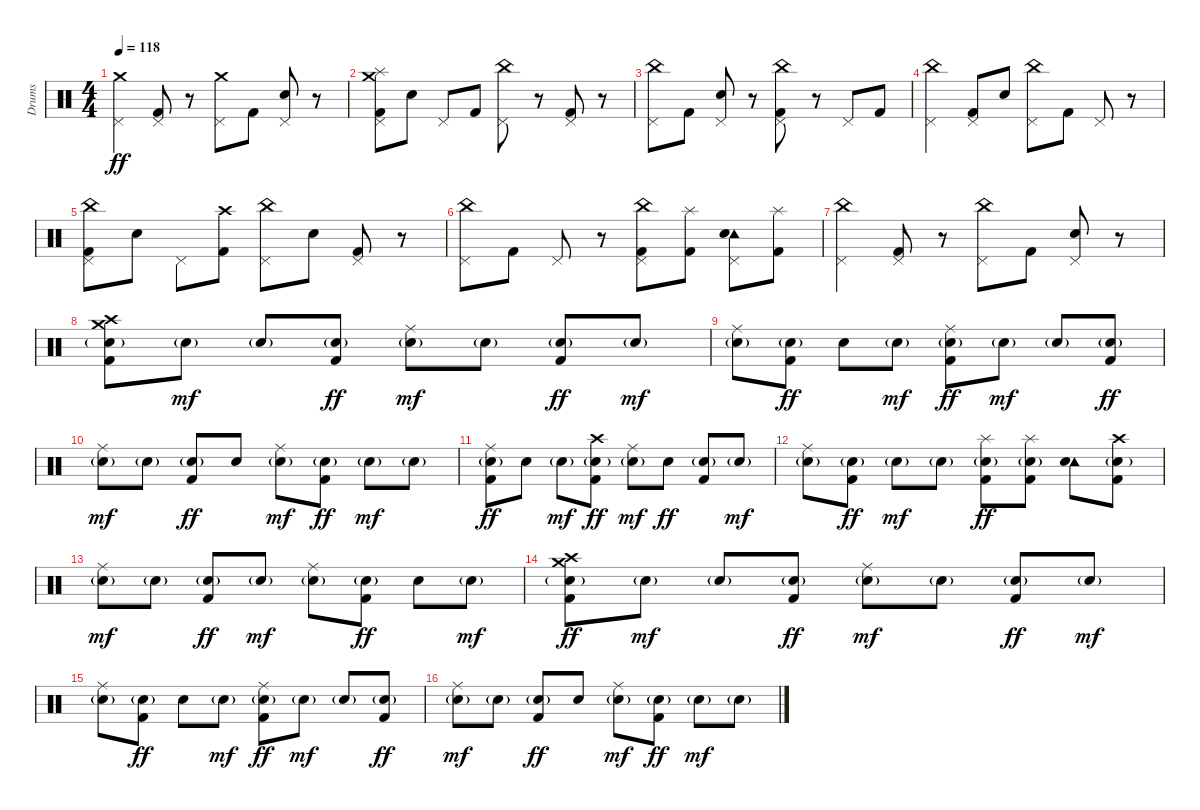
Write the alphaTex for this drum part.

\track ("Drums" "Drums") {instrument percussion}
\staff {score}
\articulation defaults
\ts (4 4)
\tempo 118
\clef neutral
\ks c
("Crash medium (hit)" "Pedal Hi-Hat (hit)").4{dy ff} ("Pedal Hi-Hat (hit)" "Kick (hit) 2").8 r.8 ("Crash medium (hit)" "Pedal Hi-Hat (hit)").8 "Kick (hit) 2".8 ("Pedal Hi-Hat (hit)" "Electric Snare (hit)").8 r.8 |
("Crash medium (hit)" "Splash (hit)" "Pedal Hi-Hat (hit)" "Kick (hit) 2").8 "Electric Snare (hit)".8 "Pedal Hi-Hat (hit)".8 "Kick (hit) 2".8 ("China (hit)" "Pedal Hi-Hat (hit)").8 r.8 ("Pedal Hi-Hat (hit)" "Kick (hit) 2").8 r.8 |
("China (hit)" "Pedal Hi-Hat (hit)").8 "Kick (hit) 2".8 ("Pedal Hi-Hat (hit)" "Electric Snare (hit)").8 r.8 ("China (hit)" "Pedal Hi-Hat (hit)" "Kick (hit) 2").8 r.8 "Pedal Hi-Hat (hit)".8 "Kick (hit) 2".8 |
("China (hit)" "Pedal Hi-Hat (hit)").4 ("Pedal Hi-Hat (hit)" "Kick (hit) 2").8 "Electric Snare (hit)".8 ("China (hit)" "Pedal Hi-Hat (hit)").8 "Kick (hit) 2".8 "Pedal Hi-Hat (hit)".8 r.8 |
("China (hit)" "Pedal Hi-Hat (hit)" "Kick (hit) 2").8 "Electric Snare (hit)".8 "Pedal Hi-Hat (hit)".8 ("Crash high (hit)" "Kick (hit) 2").8 ("China (hit)" "Pedal Hi-Hat (hit)").8 "Electric Snare (hit)".8 ("Pedal Hi-Hat (hit)" "Kick (hit) 2").8 r.8 |
("China (hit)" "Pedal Hi-Hat (hit)").8 "Kick (hit) 2".8 "Pedal Hi-Hat (hit)".8 r.8 ("China (hit)" "Pedal Hi-Hat (hit)" "Kick (hit) 2").8 ("Splash (hit)" "Kick (hit) 2").8 ("Tambourine (hit)" "Pedal Hi-Hat (hit)" "Electric Snare (hit)").8 ("Splash (hit)" "Kick (hit) 2").8 |
("China (hit)" "Pedal Hi-Hat (hit)").4 ("Pedal Hi-Hat (hit)" "Kick (hit) 2").8 r.8 ("China (hit)" "Pedal Hi-Hat (hit)").8 "Kick (hit) 2".8 ("Pedal Hi-Hat (hit)" "Electric Snare (hit)").8 r.8 |
\section ("" "")
("Crash medium (hit)" "Crash high (hit)" "Electric Snare (hit)"{g} "Kick (hit) 2").8 "Electric Snare (hit)"{g}.8{dy mf} "Electric Snare (hit)"{g}.8 ("Electric Snare (hit)"{g} "Kick (hit) 2").8{dy ff} ("Ride (middle)" "Electric Snare (hit)"{g}).8{dy mf} "Electric Snare (hit)"{g}.8 ("Electric Snare (hit)"{g} "Kick (hit) 2").8{dy ff} "Electric Snare (hit)"{g}.8{dy mf} |
("Ride (middle)" "Electric Snare (hit)"{g}).8 ("Electric Snare (hit)"{g} "Kick (hit) 2").8{dy ff} "Electric Snare (hit)".8 "Electric Snare (hit)"{g}.8{dy mf} ("Ride (middle)" "Electric Snare (hit)"{g} "Kick (hit) 2").8{dy ff} "Electric Snare (hit)"{g}.8{dy mf} "Electric Snare (hit)"{g}.8 ("Electric Snare (hit)"{g} "Kick (hit) 2").8{dy ff} |
("Ride (middle)" "Electric Snare (hit)"{g}).8{dy mf} "Electric Snare (hit)"{g}.8 ("Electric Snare (hit)"{g} "Kick (hit) 2").8{dy ff} "Electric Snare (hit)".8 ("Ride (middle)" "Electric Snare (hit)"{g}).8{dy mf} ("Electric Snare (hit)"{g} "Kick (hit) 2").8{dy ff} "Electric Snare (hit)"{g}.8{dy mf} "Electric Snare (hit)"{g}.8 |
("Ride (middle)" "Electric Snare (hit)"{g} "Kick (hit) 2").8{dy ff} "Electric Snare (hit)".8 "Electric Snare (hit)"{g}.8{dy mf} ("Crash high (hit)" "Electric Snare (hit)"{g} "Kick (hit) 2").8{dy ff} ("Ride (middle)" "Electric Snare (hit)"{g}).8{dy mf} "Electric Snare (hit)".8{dy ff} ("Electric Snare (hit)"{g} "Kick (hit) 2").8 "Electric Snare (hit)"{g}.8{dy mf} |
("Ride (middle)" "Electric Snare (hit)"{g}).8 ("Electric Snare (hit)"{g} "Kick (hit) 2").8{dy ff} "Electric Snare (hit)"{g}.8{dy mf} "Electric Snare (hit)"{g}.8 ("Splash (hit)" "Electric Snare (hit)"{g} "Kick (hit) 2").8{dy ff} ("Splash (hit)" "Electric Snare (hit)"{g} "Kick (hit) 2").8 ("Tambourine (hit)" "Electric Snare (hit)").8 ("Crash high (hit)" "Electric Snare (hit)"{g} "Kick (hit) 2").8 |
("Ride (middle)" "Electric Snare (hit)"{g}).8{dy mf} "Electric Snare (hit)"{g}.8 ("Electric Snare (hit)"{g} "Kick (hit) 2").8{dy ff} "Electric Snare (hit)"{g}.8{dy mf} ("Ride (middle)" "Electric Snare (hit)"{g}).8 ("Electric Snare (hit)"{g} "Kick (hit) 2").8{dy ff} "Electric Snare (hit)".8 "Electric Snare (hit)"{g}.8{dy mf} |
("Crash medium (hit)" "Crash high (hit)" "Electric Snare (hit)"{g} "Kick (hit) 2").8{dy ff} "Electric Snare (hit)"{g}.8{dy mf} "Electric Snare (hit)"{g}.8 ("Electric Snare (hit)"{g} "Kick (hit) 2").8{dy ff} ("Ride (middle)" "Electric Snare (hit)"{g}).8{dy mf} "Electric Snare (hit)"{g}.8 ("Electric Snare (hit)"{g} "Kick (hit) 2").8{dy ff} "Electric Snare (hit)"{g}.8{dy mf} |
("Ride (middle)" "Electric Snare (hit)"{g}).8 ("Electric Snare (hit)"{g} "Kick (hit) 2").8{dy ff} "Electric Snare (hit)".8 "Electric Snare (hit)"{g}.8{dy mf} ("Ride (middle)" "Electric Snare (hit)"{g} "Kick (hit) 2").8{dy ff} "Electric Snare (hit)"{g}.8{dy mf} "Electric Snare (hit)"{g}.8 ("Electric Snare (hit)"{g} "Kick (hit) 2").8{dy ff} |
("Ride (middle)" "Electric Snare (hit)"{g}).8{dy mf} "Electric Snare (hit)"{g}.8 ("Electric Snare (hit)"{g} "Kick (hit) 2").8{dy ff} "Electric Snare (hit)".8 ("Ride (middle)" "Electric Snare (hit)"{g}).8{dy mf} ("Electric Snare (hit)"{g} "Kick (hit) 2").8{dy ff} "Electric Snare (hit)"{g}.8{dy mf} "Electric Snare (hit)"{g}.8
